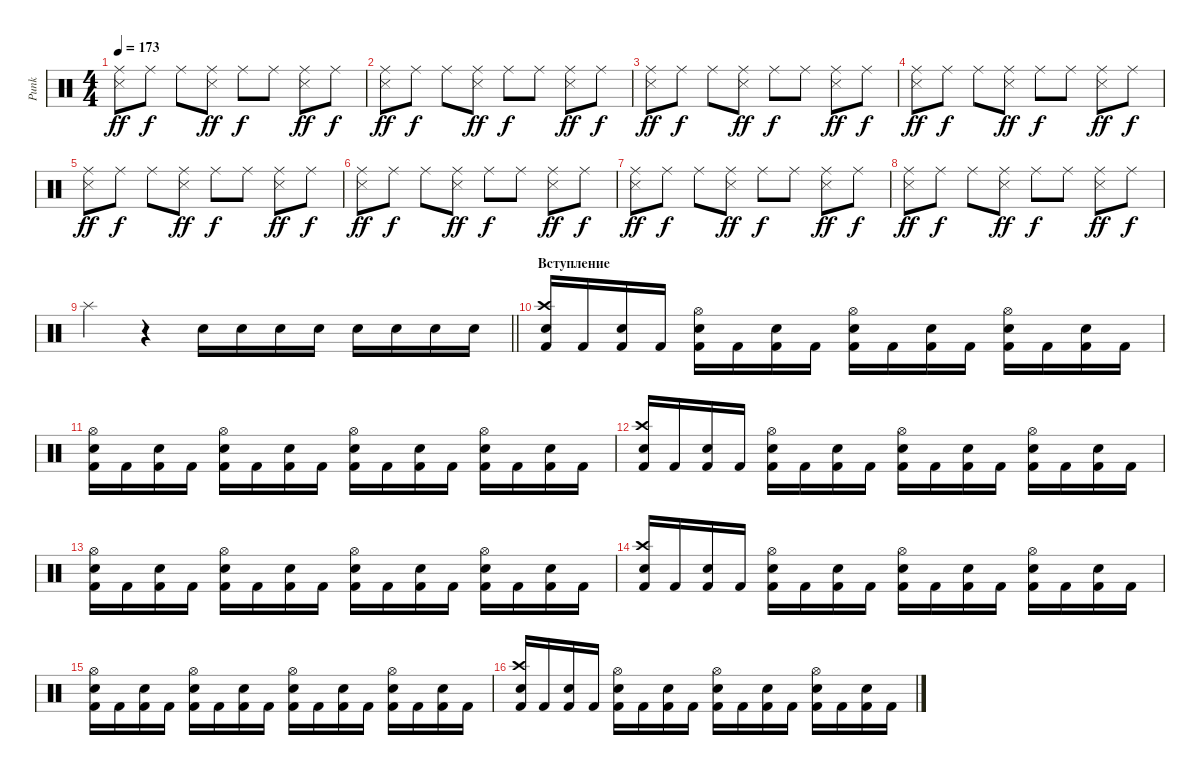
\track ("Punk" "Punk") {instrument percussion}
\staff {score}
\articulation defaults
\ts (4 4)
\tempo 173
\clef neutral
\ks c
("Ride (middle)" "Metronome (hit)").8{dy ff} "Ride (middle)".8{dy f} "Ride (middle)".8 ("Ride (middle)" "Metronome (hit)").8{dy ff} "Ride (middle)".8{dy f} "Ride (middle)".8 ("Ride (middle)" "Metronome (hit)").8{dy ff} "Ride (middle)".8{dy f} |
("Ride (middle)" "Metronome (hit)").8{dy ff} "Ride (middle)".8{dy f} "Ride (middle)".8 ("Ride (middle)" "Metronome (hit)").8{dy ff} "Ride (middle)".8{dy f} "Ride (middle)".8 ("Ride (middle)" "Metronome (hit)").8{dy ff} "Ride (middle)".8{dy f} |
("Ride (middle)" "Metronome (hit)").8{dy ff} "Ride (middle)".8{dy f} "Ride (middle)".8 ("Ride (middle)" "Metronome (hit)").8{dy ff} "Ride (middle)".8{dy f} "Ride (middle)".8 ("Ride (middle)" "Metronome (hit)").8{dy ff} "Ride (middle)".8{dy f} |
("Ride (middle)" "Metronome (hit)").8{dy ff} "Ride (middle)".8{dy f} "Ride (middle)".8 ("Ride (middle)" "Metronome (hit)").8{dy ff} "Ride (middle)".8{dy f} "Ride (middle)".8 ("Ride (middle)" "Metronome (hit)").8{dy ff} "Ride (middle)".8{dy f} |
("Ride (middle)" "Metronome (hit)").8{dy ff} "Ride (middle)".8{dy f} "Ride (middle)".8 ("Ride (middle)" "Metronome (hit)").8{dy ff} "Ride (middle)".8{dy f} "Ride (middle)".8 ("Ride (middle)" "Metronome (hit)").8{dy ff} "Ride (middle)".8{dy f} |
("Ride (middle)" "Metronome (hit)").8{dy ff} "Ride (middle)".8{dy f} "Ride (middle)".8 ("Ride (middle)" "Metronome (hit)").8{dy ff} "Ride (middle)".8{dy f} "Ride (middle)".8 ("Ride (middle)" "Metronome (hit)").8{dy ff} "Ride (middle)".8{dy f} |
("Ride (middle)" "Metronome (hit)").8{dy ff} "Ride (middle)".8{dy f} "Ride (middle)".8 ("Ride (middle)" "Metronome (hit)").8{dy ff} "Ride (middle)".8{dy f} "Ride (middle)".8 ("Ride (middle)" "Metronome (hit)").8{dy ff} "Ride (middle)".8{dy f} |
("Ride (middle)" "Metronome (hit)").8{dy ff} "Ride (middle)".8{dy f} "Ride (middle)".8 ("Ride (middle)" "Metronome (hit)").8{dy ff} "Ride (middle)".8{dy f} "Ride (middle)".8 ("Ride (middle)" "Metronome (hit)").8{dy ff} "Ride (middle)".8{dy f} |
\barLineRight lightlight "Splash (hit)".4
r.4 "Electric Snare (hit)".16 "Electric Snare (hit)".16 "Electric Snare (hit)".16 "Electric Snare (hit)".16 "Electric Snare (hit)".16 "Electric Snare (hit)".16 "Electric Snare (hit)".16 "Electric Snare (hit)".16 |
\section ("" "Вступление")
("Crash high (hit)" "Electric Snare (hit)" "Kick (hit) 2").16 "Kick (hit) 2".16 ("Electric Snare (hit)" "Kick (hit) 2").16 "Kick (hit) 2".16 ("Hi-Hat (open)" "Electric Snare (hit)" "Kick (hit) 2").16 "Kick (hit) 2".16 ("Electric Snare (hit)" "Kick (hit) 2").16 "Kick (hit) 2".16 ("Hi-Hat (open)" "Electric Snare (hit)" "Kick (hit) 2").16 "Kick (hit) 2".16 ("Electric Snare (hit)" "Kick (hit) 2").16 "Kick (hit) 2".16 ("Hi-Hat (open)" "Electric Snare (hit)" "Kick (hit) 2").16 "Kick (hit) 2".16 ("Electric Snare (hit)" "Kick (hit) 2").16 "Kick (hit) 2".16 |
("Hi-Hat (open)" "Electric Snare (hit)" "Kick (hit) 2").16 "Kick (hit) 2".16 ("Electric Snare (hit)" "Kick (hit) 2").16 "Kick (hit) 2".16 ("Hi-Hat (open)" "Electric Snare (hit)" "Kick (hit) 2").16 "Kick (hit) 2".16 ("Electric Snare (hit)" "Kick (hit) 2").16 "Kick (hit) 2".16 ("Hi-Hat (open)" "Electric Snare (hit)" "Kick (hit) 2").16 "Kick (hit) 2".16 ("Electric Snare (hit)" "Kick (hit) 2").16 "Kick (hit) 2".16 ("Hi-Hat (open)" "Electric Snare (hit)" "Kick (hit) 2").16 "Kick (hit) 2".16 ("Electric Snare (hit)" "Kick (hit) 2").16 "Kick (hit) 2".16 |
("Crash high (hit)" "Electric Snare (hit)" "Kick (hit) 2").16 "Kick (hit) 2".16 ("Electric Snare (hit)" "Kick (hit) 2").16 "Kick (hit) 2".16 ("Hi-Hat (open)" "Electric Snare (hit)" "Kick (hit) 2").16 "Kick (hit) 2".16 ("Electric Snare (hit)" "Kick (hit) 2").16 "Kick (hit) 2".16 ("Hi-Hat (open)" "Electric Snare (hit)" "Kick (hit) 2").16 "Kick (hit) 2".16 ("Electric Snare (hit)" "Kick (hit) 2").16 "Kick (hit) 2".16 ("Hi-Hat (open)" "Electric Snare (hit)" "Kick (hit) 2").16 "Kick (hit) 2".16 ("Electric Snare (hit)" "Kick (hit) 2").16 "Kick (hit) 2".16 |
("Hi-Hat (open)" "Electric Snare (hit)" "Kick (hit) 2").16 "Kick (hit) 2".16 ("Electric Snare (hit)" "Kick (hit) 2").16 "Kick (hit) 2".16 ("Hi-Hat (open)" "Electric Snare (hit)" "Kick (hit) 2").16 "Kick (hit) 2".16 ("Electric Snare (hit)" "Kick (hit) 2").16 "Kick (hit) 2".16 ("Hi-Hat (open)" "Electric Snare (hit)" "Kick (hit) 2").16 "Kick (hit) 2".16 ("Electric Snare (hit)" "Kick (hit) 2").16 "Kick (hit) 2".16 ("Hi-Hat (open)" "Electric Snare (hit)" "Kick (hit) 2").16 "Kick (hit) 2".16 ("Electric Snare (hit)" "Kick (hit) 2").16 "Kick (hit) 2".16 |
("Crash high (hit)" "Electric Snare (hit)" "Kick (hit) 2").16 "Kick (hit) 2".16 ("Electric Snare (hit)" "Kick (hit) 2").16 "Kick (hit) 2".16 ("Hi-Hat (open)" "Electric Snare (hit)" "Kick (hit) 2").16 "Kick (hit) 2".16 ("Electric Snare (hit)" "Kick (hit) 2").16 "Kick (hit) 2".16 ("Hi-Hat (open)" "Electric Snare (hit)" "Kick (hit) 2").16 "Kick (hit) 2".16 ("Electric Snare (hit)" "Kick (hit) 2").16 "Kick (hit) 2".16 ("Hi-Hat (open)" "Electric Snare (hit)" "Kick (hit) 2").16 "Kick (hit) 2".16 ("Electric Snare (hit)" "Kick (hit) 2").16 "Kick (hit) 2".16 |
("Hi-Hat (open)" "Electric Snare (hit)" "Kick (hit) 2").16 "Kick (hit) 2".16 ("Electric Snare (hit)" "Kick (hit) 2").16 "Kick (hit) 2".16 ("Hi-Hat (open)" "Electric Snare (hit)" "Kick (hit) 2").16 "Kick (hit) 2".16 ("Electric Snare (hit)" "Kick (hit) 2").16 "Kick (hit) 2".16 ("Hi-Hat (open)" "Electric Snare (hit)" "Kick (hit) 2").16 "Kick (hit) 2".16 ("Electric Snare (hit)" "Kick (hit) 2").16 "Kick (hit) 2".16 ("Hi-Hat (open)" "Electric Snare (hit)" "Kick (hit) 2").16 "Kick (hit) 2".16 ("Electric Snare (hit)" "Kick (hit) 2").16 "Kick (hit) 2".16 |
("Crash high (hit)" "Electric Snare (hit)" "Kick (hit) 2").16 "Kick (hit) 2".16 ("Electric Snare (hit)" "Kick (hit) 2").16 "Kick (hit) 2".16 ("Hi-Hat (open)" "Electric Snare (hit)" "Kick (hit) 2").16 "Kick (hit) 2".16 ("Electric Snare (hit)" "Kick (hit) 2").16 "Kick (hit) 2".16 ("Hi-Hat (open)" "Electric Snare (hit)" "Kick (hit) 2").16 "Kick (hit) 2".16 ("Electric Snare (hit)" "Kick (hit) 2").16 "Kick (hit) 2".16 ("Hi-Hat (open)" "Electric Snare (hit)" "Kick (hit) 2").16 "Kick (hit) 2".16 ("Electric Snare (hit)" "Kick (hit) 2").16 "Kick (hit) 2".16
